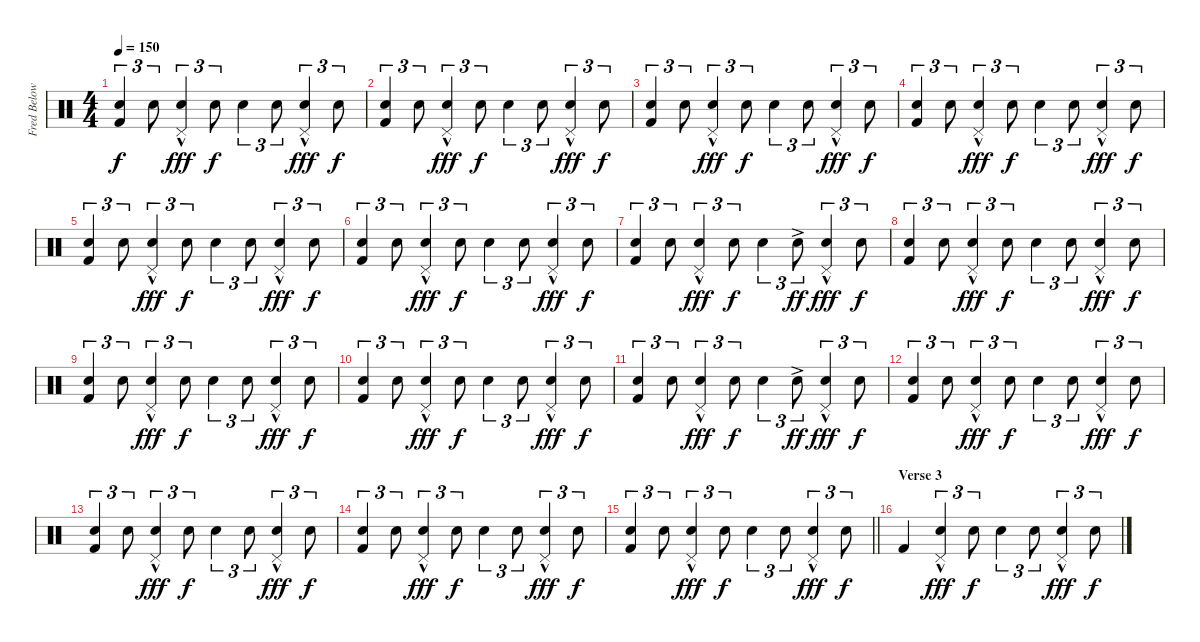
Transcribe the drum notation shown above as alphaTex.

\track ("Fred Below" "Fred Below") {instrument percussion}
\staff {score}
\articulation defaults
\ts (4 4)
\tempo 150
\clef neutral
\ks c
("Snare (hit) 2" "Kick (hit) 2").4{tu (3 2) dy f} "Snare (hit) 2".8{tu (3 2)} ("Snare (hit) 2"{hac} "Pedal Hi-Hat (hit)").4{tu (3 2) dy fff} "Snare (hit) 2".8{tu (3 2) dy f} "Snare (hit) 2".4{tu (3 2)} "Snare (hit) 2".8{tu (3 2)} ("Hand Clap (hit)"{hac} "Pedal Hi-Hat (hit)").4{tu (3 2) dy fff} "Snare (hit) 2".8{tu (3 2) dy f} |
("Snare (hit) 2" "Kick (hit) 2").4{tu (3 2)} "Snare (hit) 2".8{tu (3 2)} ("Snare (hit) 2"{hac} "Pedal Hi-Hat (hit)").4{tu (3 2) dy fff} "Snare (hit) 2".8{tu (3 2) dy f} "Snare (hit) 2".4{tu (3 2)} "Snare (hit) 2".8{tu (3 2)} ("Hand Clap (hit)"{hac} "Pedal Hi-Hat (hit)").4{tu (3 2) dy fff} "Snare (hit) 2".8{tu (3 2) dy f} |
("Snare (hit) 2" "Kick (hit) 2").4{tu (3 2)} "Snare (hit) 2".8{tu (3 2)} ("Snare (hit) 2"{hac} "Pedal Hi-Hat (hit)").4{tu (3 2) dy fff} "Snare (hit) 2".8{tu (3 2) dy f} "Snare (hit) 2".4{tu (3 2)} "Snare (hit) 2".8{tu (3 2)} ("Hand Clap (hit)"{hac} "Pedal Hi-Hat (hit)").4{tu (3 2) dy fff} "Snare (hit) 2".8{tu (3 2) dy f} |
("Snare (hit) 2" "Kick (hit) 2").4{tu (3 2)} "Snare (hit) 2".8{tu (3 2)} ("Snare (hit) 2"{hac} "Pedal Hi-Hat (hit)").4{tu (3 2) dy fff} "Snare (hit) 2".8{tu (3 2) dy f} "Snare (hit) 2".4{tu (3 2)} "Snare (hit) 2".8{tu (3 2)} ("Hand Clap (hit)"{hac} "Pedal Hi-Hat (hit)").4{tu (3 2) dy fff} "Snare (hit) 2".8{tu (3 2) dy f} |
("Snare (hit) 2" "Kick (hit) 2").4{tu (3 2)} "Snare (hit) 2".8{tu (3 2)} ("Snare (hit) 2"{hac} "Pedal Hi-Hat (hit)").4{tu (3 2) dy fff} "Snare (hit) 2".8{tu (3 2) dy f} "Snare (hit) 2".4{tu (3 2)} "Snare (hit) 2".8{tu (3 2)} ("Hand Clap (hit)"{hac} "Pedal Hi-Hat (hit)").4{tu (3 2) dy fff} "Snare (hit) 2".8{tu (3 2) dy f} |
("Snare (hit) 2" "Kick (hit) 2").4{tu (3 2)} "Snare (hit) 2".8{tu (3 2)} ("Snare (hit) 2"{hac} "Pedal Hi-Hat (hit)").4{tu (3 2) dy fff} "Snare (hit) 2".8{tu (3 2) dy f} "Snare (hit) 2".4{tu (3 2)} "Snare (hit) 2".8{tu (3 2)} ("Hand Clap (hit)"{hac} "Pedal Hi-Hat (hit)").4{tu (3 2) dy fff} "Snare (hit) 2".8{tu (3 2) dy f} |
("Snare (hit) 2" "Kick (hit) 2").4{tu (3 2)} "Snare (hit) 2".8{tu (3 2)} ("Snare (hit) 2"{hac} "Pedal Hi-Hat (hit)").4{tu (3 2) dy fff} "Snare (hit) 2".8{tu (3 2) dy f} "Snare (hit) 2".4{tu (3 2)} "Hand Clap (hit)"{ac}.8{tu (3 2) dy ff} ("Hand Clap (hit)"{hac} "Pedal Hi-Hat (hit)").4{tu (3 2) dy fff} "Snare (hit) 2".8{tu (3 2) dy f} |
("Snare (hit) 2" "Kick (hit) 2").4{tu (3 2)} "Snare (hit) 2".8{tu (3 2)} ("Snare (hit) 2"{hac} "Pedal Hi-Hat (hit)").4{tu (3 2) dy fff} "Snare (hit) 2".8{tu (3 2) dy f} "Snare (hit) 2".4{tu (3 2)} "Snare (hit) 2".8{tu (3 2)} ("Hand Clap (hit)"{hac} "Pedal Hi-Hat (hit)").4{tu (3 2) dy fff} "Snare (hit) 2".8{tu (3 2) dy f} |
("Snare (hit) 2" "Kick (hit) 2").4{tu (3 2)} "Snare (hit) 2".8{tu (3 2)} ("Snare (hit) 2"{hac} "Pedal Hi-Hat (hit)").4{tu (3 2) dy fff} "Snare (hit) 2".8{tu (3 2) dy f} "Snare (hit) 2".4{tu (3 2)} "Snare (hit) 2".8{tu (3 2)} ("Hand Clap (hit)"{hac} "Pedal Hi-Hat (hit)").4{tu (3 2) dy fff} "Snare (hit) 2".8{tu (3 2) dy f} |
("Snare (hit) 2" "Kick (hit) 2").4{tu (3 2)} "Snare (hit) 2".8{tu (3 2)} ("Snare (hit) 2"{hac} "Pedal Hi-Hat (hit)").4{tu (3 2) dy fff} "Snare (hit) 2".8{tu (3 2) dy f} "Snare (hit) 2".4{tu (3 2)} "Snare (hit) 2".8{tu (3 2)} ("Hand Clap (hit)"{hac} "Pedal Hi-Hat (hit)").4{tu (3 2) dy fff} "Snare (hit) 2".8{tu (3 2) dy f} |
("Snare (hit) 2" "Kick (hit) 2").4{tu (3 2)} "Snare (hit) 2".8{tu (3 2)} ("Snare (hit) 2"{hac} "Pedal Hi-Hat (hit)").4{tu (3 2) dy fff} "Snare (hit) 2".8{tu (3 2) dy f} "Snare (hit) 2".4{tu (3 2)} "Hand Clap (hit)"{ac}.8{tu (3 2) dy ff} ("Hand Clap (hit)"{hac} "Pedal Hi-Hat (hit)").4{tu (3 2) dy fff} "Snare (hit) 2".8{tu (3 2) dy f} |
("Snare (hit) 2" "Kick (hit) 2").4{tu (3 2)} "Snare (hit) 2".8{tu (3 2)} ("Snare (hit) 2"{hac} "Pedal Hi-Hat (hit)").4{tu (3 2) dy fff} "Snare (hit) 2".8{tu (3 2) dy f} "Snare (hit) 2".4{tu (3 2)} "Snare (hit) 2".8{tu (3 2)} ("Hand Clap (hit)"{hac} "Pedal Hi-Hat (hit)").4{tu (3 2) dy fff} "Snare (hit) 2".8{tu (3 2) dy f} |
("Snare (hit) 2" "Kick (hit) 2").4{tu (3 2)} "Snare (hit) 2".8{tu (3 2)} ("Snare (hit) 2"{hac} "Pedal Hi-Hat (hit)").4{tu (3 2) dy fff} "Snare (hit) 2".8{tu (3 2) dy f} "Snare (hit) 2".4{tu (3 2)} "Snare (hit) 2".8{tu (3 2)} ("Hand Clap (hit)"{hac} "Pedal Hi-Hat (hit)").4{tu (3 2) dy fff} "Snare (hit) 2".8{tu (3 2) dy f} |
("Snare (hit) 2" "Kick (hit) 2").4{tu (3 2)} "Snare (hit) 2".8{tu (3 2)} ("Snare (hit) 2"{hac} "Pedal Hi-Hat (hit)").4{tu (3 2) dy fff} "Snare (hit) 2".8{tu (3 2) dy f} "Snare (hit) 2".4{tu (3 2)} "Snare (hit) 2".8{tu (3 2)} ("Hand Clap (hit)"{hac} "Pedal Hi-Hat (hit)").4{tu (3 2) dy fff} "Snare (hit) 2".8{tu (3 2) dy f} |
\barLineRight lightlight
("Snare (hit) 2" "Kick (hit) 2").4{tu (3 2)} "Snare (hit) 2".8{tu (3 2)} ("Snare (hit) 2"{hac} "Pedal Hi-Hat (hit)").4{tu (3 2) dy fff} "Snare (hit) 2".8{tu (3 2) dy f} "Snare (hit) 2".4{tu (3 2)} "Snare (hit) 2".8{tu (3 2)} ("Hand Clap (hit)"{hac} "Pedal Hi-Hat (hit)").4{tu (3 2) dy fff} "Snare (hit) 2".8{tu (3 2) dy f} |
\section ("" "Verse 3")
"Kick (hit) 2".4 ("Snare (hit) 2"{hac} "Pedal Hi-Hat (hit)").4{tu (3 2) dy fff} "Snare (hit) 2".8{tu (3 2) dy f} "Electric Snare (hit)".4{tu (3 2)} "Snare (hit) 2".8{tu (3 2)} ("Hand Clap (hit)"{hac} "Pedal Hi-Hat (hit)").4{tu (3 2) dy fff} "Snare (hit) 2".8{tu (3 2) dy f}
